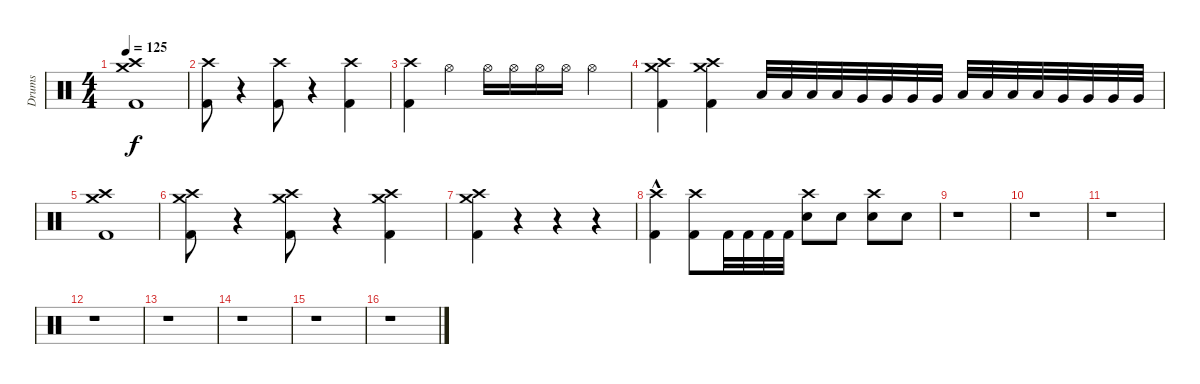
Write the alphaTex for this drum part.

\track ("Drums" "Drums") {instrument percussion}
\staff {score}
\articulation defaults
\ts (4 4)
\tempo 125
\clef neutral
\ks c
("Crash high (hit)" "Crash medium (hit)" "Kick (hit) 2").1{dy f} |
("Kick (hit) 2" "Crash high (hit)").8 r.4 ("Crash high (hit)" "Kick (hit) 2").8 r.4 ("Crash high (hit)" "Kick (hit) 2").4 |
("Crash high (hit)" "Kick (hit) 2").4 "Hi-Hat (open)".4 "Hi-Hat (open)".16 "Hi-Hat (open)".16 "Hi-Hat (open)".16 "Hi-Hat (open)".16 "Hi-Hat (open)".4 |
("Crash high (hit)" "Crash medium (hit)" "Kick (hit) 2").4 ("Crash high (hit)" "Crash medium (hit)" "Kick (hit) 2").4 "Low Tom (hit)".32 "Low Tom (hit)".32 "Low Tom (hit)".32 "Low Tom (hit)".32 "Very Low Tom (hit)".32 "Very Low Tom (hit)".32 "Very Low Tom (hit)".32 "Very Low Tom (hit)".32 "Low Tom (hit)".32 "Low Tom (hit)".32 "Low Tom (hit)".32 "Low Tom (hit)".32 "Very Low Tom (hit)".32 "Very Low Tom (hit)".32 "Very Low Tom (hit)".32 "Very Low Tom (hit)".32 |
("Kick (hit) 2" "Crash high (hit)" "Crash medium (hit)").1 |
("Crash high (hit)" "Crash medium (hit)" "Kick (hit) 2").8 r.4 ("Crash medium (hit)" "Crash high (hit)" "Kick (hit) 2").8 r.4 ("Crash high (hit)" "Crash medium (hit)" "Kick (hit) 2").4 |
("Crash high (hit)" "Crash medium (hit)" "Kick (hit) 2").4 r.4 r.4 r.4 |
("Crash high (hit)" "Kick (hit) 2"{hac}).4 ("Crash high (hit)" "Kick (hit) 2").8 "Kick (hit) 2".32 "Kick (hit) 2".32 "Kick (hit) 2".32 "Kick (hit) 2".32 ("Crash high (hit)" "Snare (hit) 2").8 "Snare (hit) 2".8 ("Crash high (hit)" "Snare (hit) 2").8 "Snare (hit) 2".8 |
r.1 |
r.1 |
r.1 |
r.1 |
r.1 |
r.1 |
r.1 |
r.1
